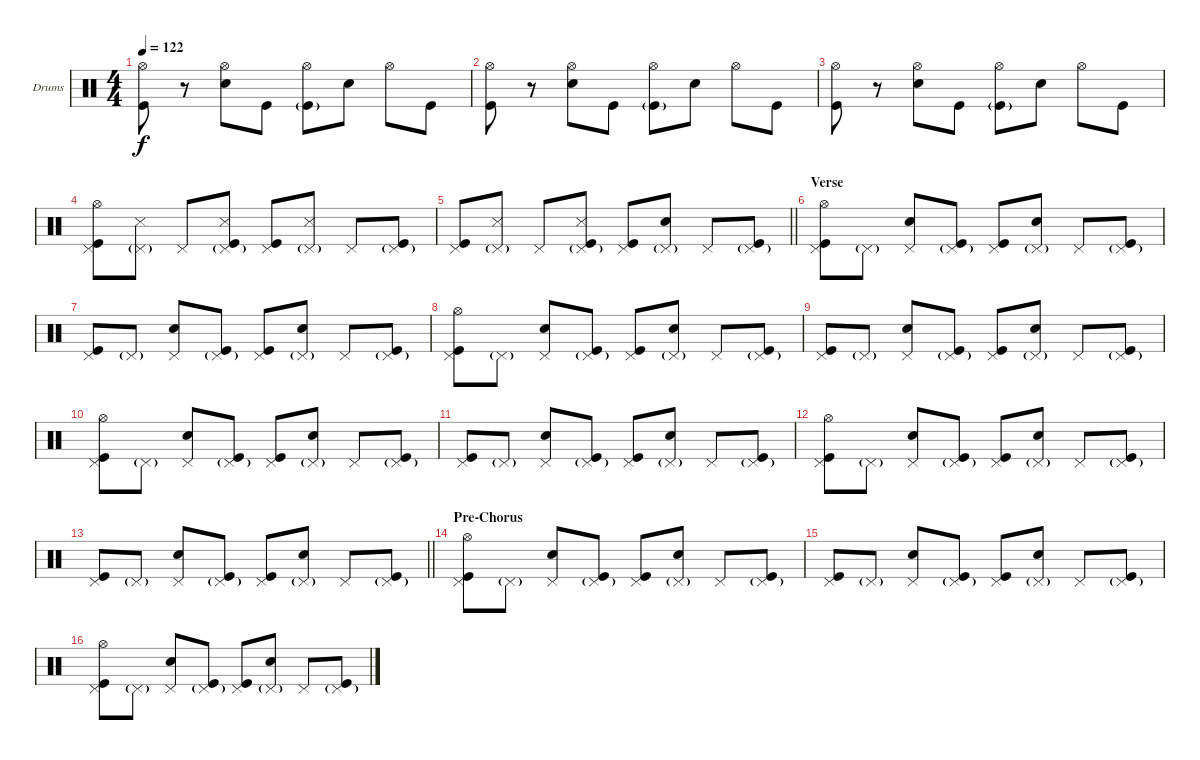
\bracketExtendMode groupsimilarinstruments
\firstSystemTrackNameOrientation horizontal
\otherSystemsTrackNameOrientation horizontal
\track ("Drumkit" "Drums") {instrument percussion}
\staff {score}
\articulation defaults
\ts (4 4)
\tempo 122
\clef neutral
\ks c
("Hi-Hat (open)" "Kick (hit)").8{dy f} r.8 ("Hi-Hat (open)" "Snare (hit) 2").8 "Kick (hit)".8 ("Hi-Hat (open)" "Kick (hit)"{g}).8 "Snare (hit) 2".8 "Hi-Hat (open)".8 "Kick (hit)".8 |
("Hi-Hat (open)" "Kick (hit)").8 r.8 ("Hi-Hat (open)" "Snare (hit) 2").8 "Kick (hit)".8 ("Hi-Hat (open)" "Kick (hit)"{g}).8 "Snare (hit) 2".8 "Hi-Hat (open)".8 "Kick (hit)".8 |
("Hi-Hat (open)" "Kick (hit)").8 r.8 ("Hi-Hat (open)" "Snare (hit) 2").8 "Kick (hit)".8 ("Hi-Hat (open)" "Kick (hit)"{g}).8 "Snare (hit) 2".8 "Hi-Hat (open)".8 "Kick (hit)".8 |
("Pedal Hi-Hat (hit)" "Hi-Hat (open)" "Kick (hit)").8 ("Pedal Hi-Hat (hit)"{g} "Snare (side stick) 3").8 "Pedal Hi-Hat (hit)".8 ("Pedal Hi-Hat (hit)"{g} "Kick (hit)" "Snare (side stick) 3").8 ("Pedal Hi-Hat (hit)" "Kick (hit)").8 ("Snare (side stick) 3" "Pedal Hi-Hat (hit)"{g}).8 "Pedal Hi-Hat (hit)".8 ("Pedal Hi-Hat (hit)"{g} "Kick (hit)").8 |
\barLineRight lightlight
("Pedal Hi-Hat (hit)" "Kick (hit)").8 ("Pedal Hi-Hat (hit)"{g} "Snare (side stick) 3").8 "Pedal Hi-Hat (hit)".8 ("Pedal Hi-Hat (hit)"{g} "Kick (hit)" "Snare (side stick) 3").8 ("Pedal Hi-Hat (hit)" "Kick (hit)").8 ("Snare (hit) 2" "Pedal Hi-Hat (hit)"{g}).8 "Pedal Hi-Hat (hit)".8 ("Pedal Hi-Hat (hit)"{g} "Kick (hit)").8 |
\section ("" "Verse")
("Pedal Hi-Hat (hit)" "Hi-Hat (open)" "Kick (hit)").8 "Pedal Hi-Hat (hit)"{g}.8 ("Pedal Hi-Hat (hit)" "Snare (hit) 2").8 ("Pedal Hi-Hat (hit)"{g} "Kick (hit)").8 ("Pedal Hi-Hat (hit)" "Kick (hit)").8 ("Snare (hit) 2" "Pedal Hi-Hat (hit)"{g}).8 "Pedal Hi-Hat (hit)".8 ("Pedal Hi-Hat (hit)"{g} "Kick (hit)").8 |
("Pedal Hi-Hat (hit)" "Kick (hit)").8 "Pedal Hi-Hat (hit)"{g}.8 ("Pedal Hi-Hat (hit)" "Snare (hit) 2").8 ("Pedal Hi-Hat (hit)"{g} "Kick (hit)").8 ("Pedal Hi-Hat (hit)" "Kick (hit)").8 ("Snare (hit) 2" "Pedal Hi-Hat (hit)"{g}).8 "Pedal Hi-Hat (hit)".8 ("Pedal Hi-Hat (hit)"{g} "Kick (hit)").8 |
("Pedal Hi-Hat (hit)" "Hi-Hat (open)" "Kick (hit)").8 "Pedal Hi-Hat (hit)"{g}.8 ("Pedal Hi-Hat (hit)" "Snare (hit) 2").8 ("Pedal Hi-Hat (hit)"{g} "Kick (hit)").8 ("Pedal Hi-Hat (hit)" "Kick (hit)").8 ("Snare (hit) 2" "Pedal Hi-Hat (hit)"{g}).8 "Pedal Hi-Hat (hit)".8 ("Pedal Hi-Hat (hit)"{g} "Kick (hit)").8 |
("Pedal Hi-Hat (hit)" "Kick (hit)").8 "Pedal Hi-Hat (hit)"{g}.8 ("Pedal Hi-Hat (hit)" "Snare (hit) 2").8 ("Pedal Hi-Hat (hit)"{g} "Kick (hit)").8 ("Pedal Hi-Hat (hit)" "Kick (hit)").8 ("Snare (hit) 2" "Pedal Hi-Hat (hit)"{g}).8 "Pedal Hi-Hat (hit)".8 ("Pedal Hi-Hat (hit)"{g} "Kick (hit)").8 |
("Pedal Hi-Hat (hit)" "Hi-Hat (open)" "Kick (hit)").8 "Pedal Hi-Hat (hit)"{g}.8 ("Pedal Hi-Hat (hit)" "Snare (hit) 2").8 ("Pedal Hi-Hat (hit)"{g} "Kick (hit)").8 ("Pedal Hi-Hat (hit)" "Kick (hit)").8 ("Snare (hit) 2" "Pedal Hi-Hat (hit)"{g}).8 "Pedal Hi-Hat (hit)".8 ("Pedal Hi-Hat (hit)"{g} "Kick (hit)").8 |
("Pedal Hi-Hat (hit)" "Kick (hit)").8 "Pedal Hi-Hat (hit)"{g}.8 ("Pedal Hi-Hat (hit)" "Snare (hit) 2").8 ("Pedal Hi-Hat (hit)"{g} "Kick (hit)").8 ("Pedal Hi-Hat (hit)" "Kick (hit)").8 ("Snare (hit) 2" "Pedal Hi-Hat (hit)"{g}).8 "Pedal Hi-Hat (hit)".8 ("Pedal Hi-Hat (hit)"{g} "Kick (hit)").8 |
("Pedal Hi-Hat (hit)" "Hi-Hat (open)" "Kick (hit)").8 "Pedal Hi-Hat (hit)"{g}.8 ("Pedal Hi-Hat (hit)" "Snare (hit) 2").8 ("Pedal Hi-Hat (hit)"{g} "Kick (hit)").8 ("Pedal Hi-Hat (hit)" "Kick (hit)").8 ("Snare (hit) 2" "Pedal Hi-Hat (hit)"{g}).8 "Pedal Hi-Hat (hit)".8 ("Pedal Hi-Hat (hit)"{g} "Kick (hit)").8 |
\barLineRight lightlight
("Pedal Hi-Hat (hit)" "Kick (hit)").8 "Pedal Hi-Hat (hit)"{g}.8 ("Pedal Hi-Hat (hit)" "Snare (hit) 2").8 ("Pedal Hi-Hat (hit)"{g} "Kick (hit)").8 ("Pedal Hi-Hat (hit)" "Kick (hit)").8 ("Snare (hit) 2" "Pedal Hi-Hat (hit)"{g}).8 "Pedal Hi-Hat (hit)".8 ("Pedal Hi-Hat (hit)"{g} "Kick (hit)").8 |
\section ("" "Pre-Chorus")
("Pedal Hi-Hat (hit)" "Hi-Hat (open)" "Kick (hit)").8 "Pedal Hi-Hat (hit)"{g}.8 ("Pedal Hi-Hat (hit)" "Snare (hit) 2").8 ("Pedal Hi-Hat (hit)"{g} "Kick (hit)").8 ("Pedal Hi-Hat (hit)" "Kick (hit)").8 ("Snare (hit) 2" "Pedal Hi-Hat (hit)"{g}).8 "Pedal Hi-Hat (hit)".8 ("Pedal Hi-Hat (hit)"{g} "Kick (hit)").8 |
("Pedal Hi-Hat (hit)" "Kick (hit)").8 "Pedal Hi-Hat (hit)"{g}.8 ("Pedal Hi-Hat (hit)" "Snare (hit) 2").8 ("Pedal Hi-Hat (hit)"{g} "Kick (hit)").8 ("Pedal Hi-Hat (hit)" "Kick (hit)").8 ("Snare (hit) 2" "Pedal Hi-Hat (hit)"{g}).8 "Pedal Hi-Hat (hit)".8 ("Pedal Hi-Hat (hit)"{g} "Kick (hit)").8 |
("Pedal Hi-Hat (hit)" "Hi-Hat (open)" "Kick (hit)").8 "Pedal Hi-Hat (hit)"{g}.8 ("Pedal Hi-Hat (hit)" "Snare (hit) 2").8 ("Pedal Hi-Hat (hit)"{g} "Kick (hit)").8 ("Pedal Hi-Hat (hit)" "Kick (hit)").8 ("Snare (hit) 2" "Pedal Hi-Hat (hit)"{g}).8 "Pedal Hi-Hat (hit)".8 ("Pedal Hi-Hat (hit)"{g} "Kick (hit)").8
